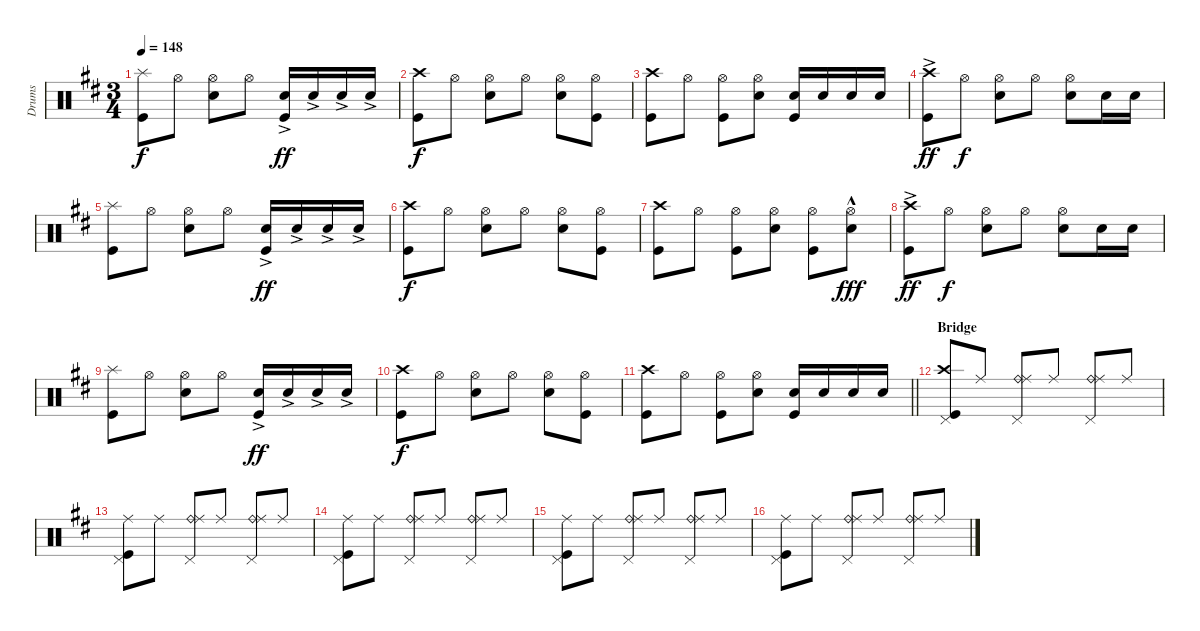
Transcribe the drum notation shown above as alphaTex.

\track ("Drums" "Drums") {instrument percussion}
\staff {score}
\articulation defaults
\ts (3 4)
\tempo 148
\clef neutral
\ks bminor
("Splash (hit)" "Kick (hit)").8{dy f} "Hi-Hat (open)".8 ("Hi-Hat (open)" "Snare (hit) 2").8 "Hi-Hat (open)".8 ("Snare (hit) 2"{ac} "Kick (hit)").16{dy ff} "Snare (hit) 2"{ac}.16 "Snare (hit) 2"{ac}.16 "Snare (hit) 2"{ac}.16 |
("Crash high (hit)" "Kick (hit)").8{dy f} "Hi-Hat (open)".8 ("Hi-Hat (open)" "Snare (hit) 2").8 "Hi-Hat (open)".8 ("Hi-Hat (open)" "Snare (hit) 2").8 ("Hi-Hat (open)" "Kick (hit)").8 |
("Crash high (hit)" "Kick (hit)").8 "Hi-Hat (open)".8 ("Hi-Hat (open)" "Kick (hit)").8 ("Hi-Hat (open)" "Snare (hit) 2").8 ("Snare (hit) 2" "Kick (hit)").16 "Snare (hit) 2".16 "Snare (hit) 2".16 "Snare (hit) 2".16 |
("Crash high (hit)"{ac} "Kick (hit)").8{dy ff} "Hi-Hat (open)".8{dy f} ("Hi-Hat (open)" "Snare (hit) 2").8 "Hi-Hat (open)".8 ("Hi-Hat (open)" "Snare (hit) 2").8 "Snare (hit) 2".16 "Snare (hit) 2".16 |
("Splash (hit)" "Kick (hit)").8 "Hi-Hat (open)".8 ("Hi-Hat (open)" "Snare (hit) 2").8 "Hi-Hat (open)".8 ("Snare (hit) 2"{ac} "Kick (hit)").16{dy ff} "Snare (hit) 2"{ac}.16 "Snare (hit) 2"{ac}.16 "Snare (hit) 2"{ac}.16 |
("Crash high (hit)" "Kick (hit)").8{dy f} "Hi-Hat (open)".8 ("Hi-Hat (open)" "Snare (hit) 2").8 "Hi-Hat (open)".8 ("Hi-Hat (open)" "Snare (hit) 2").8 ("Hi-Hat (open)" "Kick (hit)").8 |
("Crash high (hit)" "Kick (hit)").8 "Hi-Hat (open)".8 ("Hi-Hat (open)" "Kick (hit)").8 ("Hi-Hat (open)" "Snare (hit) 2").8 ("Hi-Hat (open)" "Kick (hit)").8 ("Hi-Hat (open)"{hac} "Snare (hit) 2").8{dy fff} |
("Crash high (hit)"{ac} "Kick (hit)").8{dy ff} "Hi-Hat (open)".8{dy f} ("Hi-Hat (open)" "Snare (hit) 2").8 "Hi-Hat (open)".8 ("Hi-Hat (open)" "Snare (hit) 2").8 "Snare (hit) 2".16 "Snare (hit) 2".16 |
("Splash (hit)" "Kick (hit)").8 "Hi-Hat (open)".8 ("Hi-Hat (open)" "Snare (hit) 2").8 "Hi-Hat (open)".8 ("Snare (hit) 2"{ac} "Kick (hit)").16{dy ff} "Snare (hit) 2"{ac}.16 "Snare (hit) 2"{ac}.16 "Snare (hit) 2"{ac}.16 |
("Crash high (hit)" "Kick (hit)").8{dy f} "Hi-Hat (open)".8 ("Hi-Hat (open)" "Snare (hit) 2").8 "Hi-Hat (open)".8 ("Hi-Hat (open)" "Snare (hit) 2").8 ("Hi-Hat (open)" "Kick (hit)").8 |
\barLineRight lightlight
("Crash high (hit)" "Kick (hit)").8 "Hi-Hat (open)".8 ("Hi-Hat (open)" "Kick (hit)").8 ("Hi-Hat (open)" "Snare (hit) 2").8 ("Snare (hit) 2" "Kick (hit)").16 "Snare (hit) 2".16 "Snare (hit) 2".16 "Snare (hit) 2".16 |
\section ("" "Bridge")
("Pedal Hi-Hat (hit)" "Crash high (hit)" "Kick (hit)").8 "Ride (middle)".8 ("Pedal Hi-Hat (hit)" "Ride (bell)" "Ride (middle)").8 "Ride (middle)".8 ("Pedal Hi-Hat (hit)" "Ride (bell)" "Ride (middle)").8 "Ride (middle)".8 |
("Pedal Hi-Hat (hit)" "Ride (middle)" "Kick (hit)").8 "Ride (middle)".8 ("Pedal Hi-Hat (hit)" "Ride (bell)" "Ride (middle)").8 "Ride (middle)".8 ("Pedal Hi-Hat (hit)" "Ride (bell)" "Ride (middle)").8 "Ride (middle)".8 |
("Pedal Hi-Hat (hit)" "Ride (middle)" "Kick (hit)").8 "Ride (middle)".8 ("Pedal Hi-Hat (hit)" "Ride (bell)" "Ride (middle)").8 "Ride (middle)".8 ("Pedal Hi-Hat (hit)" "Ride (bell)" "Ride (middle)").8 "Ride (middle)".8 |
("Pedal Hi-Hat (hit)" "Ride (middle)" "Kick (hit)").8 "Ride (middle)".8 ("Pedal Hi-Hat (hit)" "Ride (bell)" "Ride (middle)").8 "Ride (middle)".8 ("Pedal Hi-Hat (hit)" "Ride (bell)" "Ride (middle)").8 "Ride (middle)".8 |
("Pedal Hi-Hat (hit)" "Ride (middle)" "Kick (hit)").8 "Ride (middle)".8 ("Pedal Hi-Hat (hit)" "Ride (bell)" "Ride (middle)").8 "Ride (middle)".8 ("Pedal Hi-Hat (hit)" "Ride (bell)" "Ride (middle)").8 "Ride (middle)".8
